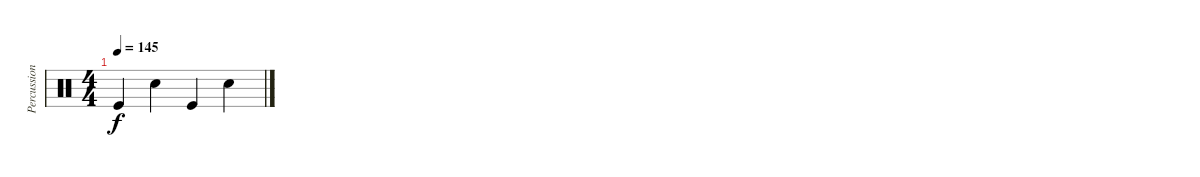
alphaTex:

\track ("Percussion" "Percussion") {instrument percussion}
\staff {score}
\articulation defaults
\ts (4 4)
\tempo 145
\clef neutral
\ks c "Kick (hit)".4{dy f} "Snare (hit) 2".4 "Kick (hit)".4 "Snare (hit) 2".4
